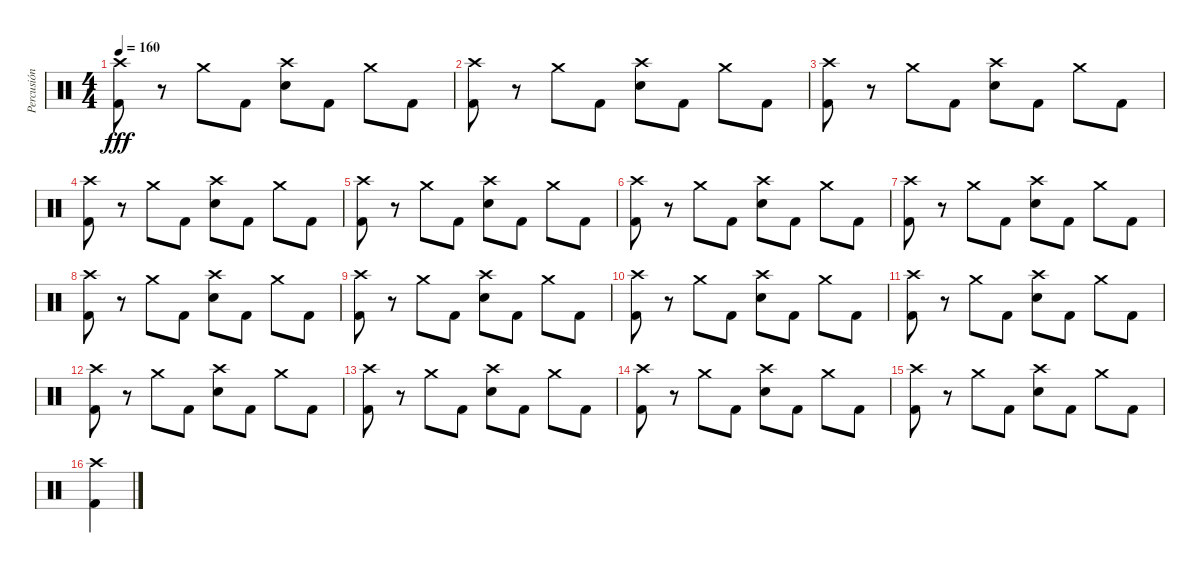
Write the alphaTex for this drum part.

\track ("Percusión" "Percusión") {instrument percussion}
\staff {score}
\articulation defaults
\ts (4 4)
\tempo 160
\clef neutral
\ks c
("Crash high (hit)" "Kick (hit) 2").8{dy fff} r.8 "Crash medium (hit)".8 "Kick (hit) 2".8 ("Crash high (hit)" "Electric Snare (hit)").8 "Kick (hit) 2".8 "Crash medium (hit)".8 "Kick (hit) 2".8 |
("Crash high (hit)" "Kick (hit) 2").8 r.8 "Crash medium (hit)".8 "Kick (hit) 2".8 ("Crash high (hit)" "Electric Snare (hit)").8 "Kick (hit) 2".8 "Crash medium (hit)".8 "Kick (hit) 2".8 |
("Crash high (hit)" "Kick (hit) 2").8 r.8 "Crash medium (hit)".8 "Kick (hit) 2".8 ("Crash high (hit)" "Electric Snare (hit)").8 "Kick (hit) 2".8 "Crash medium (hit)".8 "Kick (hit) 2".8 |
("Crash high (hit)" "Kick (hit) 2").8 r.8 "Crash medium (hit)".8 "Kick (hit) 2".8 ("Crash high (hit)" "Electric Snare (hit)").8 "Kick (hit) 2".8 "Crash medium (hit)".8 "Kick (hit) 2".8 |
("Crash high (hit)" "Kick (hit) 2").8 r.8 "Crash medium (hit)".8 "Kick (hit) 2".8 ("Crash high (hit)" "Electric Snare (hit)").8 "Kick (hit) 2".8 "Crash medium (hit)".8 "Kick (hit) 2".8 |
("Crash high (hit)" "Kick (hit) 2").8 r.8 "Crash medium (hit)".8 "Kick (hit) 2".8 ("Crash high (hit)" "Electric Snare (hit)").8 "Kick (hit) 2".8 "Crash medium (hit)".8 "Kick (hit) 2".8 |
("Crash high (hit)" "Kick (hit) 2").8 r.8 "Crash medium (hit)".8 "Kick (hit) 2".8 ("Crash high (hit)" "Electric Snare (hit)").8 "Kick (hit) 2".8 "Crash medium (hit)".8 "Kick (hit) 2".8 |
("Crash high (hit)" "Kick (hit) 2").8 r.8 "Crash medium (hit)".8 "Kick (hit) 2".8 ("Crash high (hit)" "Electric Snare (hit)").8 "Kick (hit) 2".8 "Crash medium (hit)".8 "Kick (hit) 2".8 |
("Crash high (hit)" "Kick (hit) 2").8 r.8 "Crash medium (hit)".8 "Kick (hit) 2".8 ("Crash high (hit)" "Electric Snare (hit)").8 "Kick (hit) 2".8 "Crash medium (hit)".8 "Kick (hit) 2".8 |
("Crash high (hit)" "Kick (hit) 2").8 r.8 "Crash medium (hit)".8 "Kick (hit) 2".8 ("Crash high (hit)" "Electric Snare (hit)").8 "Kick (hit) 2".8 "Crash medium (hit)".8 "Kick (hit) 2".8 |
("Crash high (hit)" "Kick (hit) 2").8 r.8 "Crash medium (hit)".8 "Kick (hit) 2".8 ("Crash high (hit)" "Electric Snare (hit)").8 "Kick (hit) 2".8 "Crash medium (hit)".8 "Kick (hit) 2".8 |
("Crash high (hit)" "Kick (hit) 2").8 r.8 "Crash medium (hit)".8 "Kick (hit) 2".8 ("Crash high (hit)" "Electric Snare (hit)").8 "Kick (hit) 2".8 "Crash medium (hit)".8 "Kick (hit) 2".8 |
("Crash high (hit)" "Kick (hit) 2").8 r.8 "Crash medium (hit)".8 "Kick (hit) 2".8 ("Crash high (hit)" "Electric Snare (hit)").8 "Kick (hit) 2".8 "Crash medium (hit)".8 "Kick (hit) 2".8 |
("Crash high (hit)" "Kick (hit) 2").8 r.8 "Crash medium (hit)".8 "Kick (hit) 2".8 ("Crash high (hit)" "Electric Snare (hit)").8 "Kick (hit) 2".8 "Crash medium (hit)".8 "Kick (hit) 2".8 |
("Crash high (hit)" "Kick (hit) 2").8 r.8 "Crash medium (hit)".8 "Kick (hit) 2".8 ("Crash high (hit)" "Electric Snare (hit)").8 "Kick (hit) 2".8 "Crash medium (hit)".8 "Kick (hit) 2".8 |
("Crash high (hit)" "Kick (hit) 2").4
